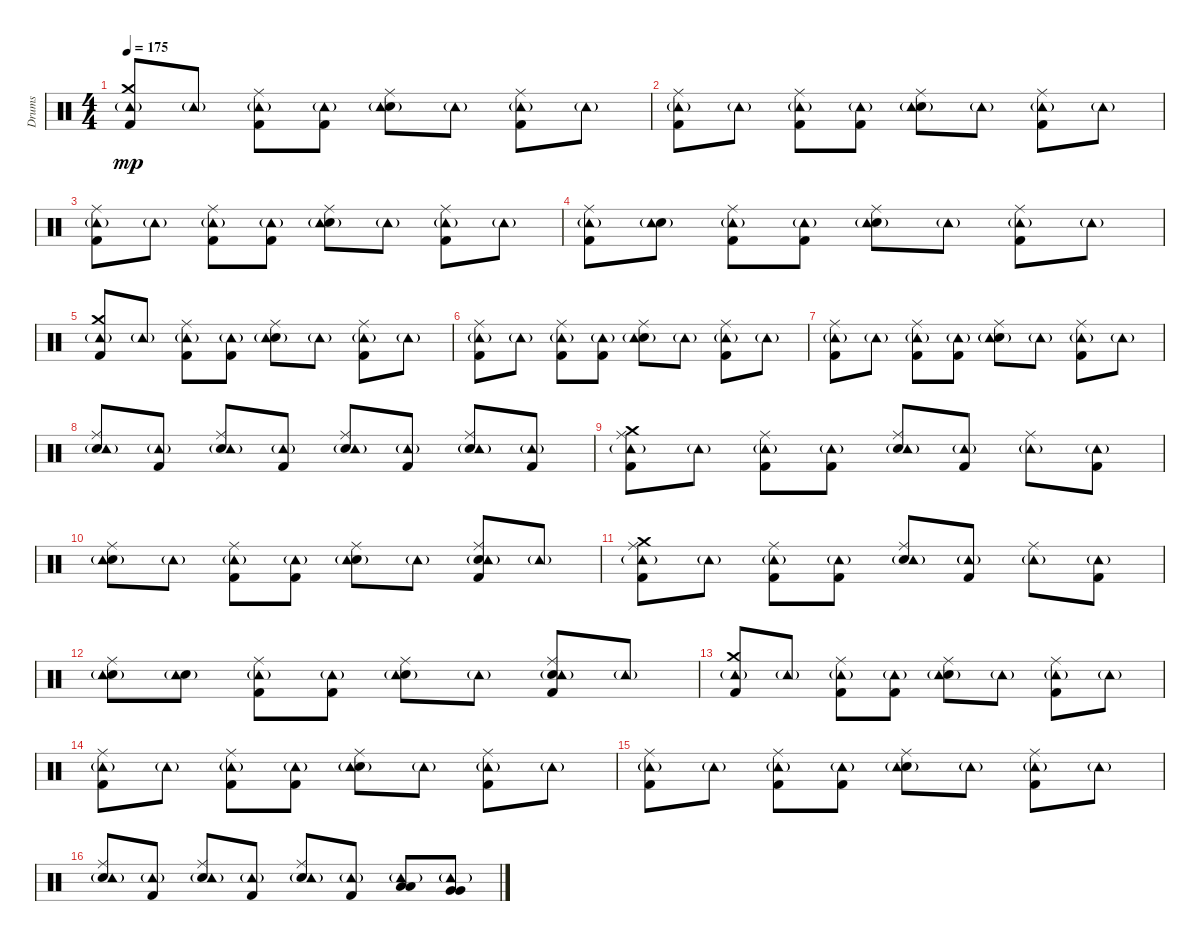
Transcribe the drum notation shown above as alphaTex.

\track ("Drums" "Drums") {instrument percussion}
\staff {score}
\articulation defaults
\ts (4 4)
\tempo 175
\clef neutral
\ks c
("Kick (hit) 2" "Crash medium (hit)" "Tambourine (hit)"{g}).8{dy mp} "Tambourine (hit)"{g}.8 ("Kick (hit) 2" "Ride (middle)" "Tambourine (hit)"{g}).8 ("Kick (hit) 2" "Tambourine (hit)"{g}).8 ("Electric Snare (hit)" "Ride (middle)" "Tambourine (hit)"{g}).8 "Tambourine (hit)"{g}.8 ("Kick (hit) 2" "Ride (middle)" "Tambourine (hit)"{g}).8 "Tambourine (hit)"{g}.8 |
("Kick (hit) 2" "Ride (middle)" "Tambourine (hit)"{g}).8 "Tambourine (hit)"{g}.8 ("Kick (hit) 2" "Ride (middle)" "Tambourine (hit)"{g}).8 ("Kick (hit) 2" "Tambourine (hit)"{g}).8 ("Electric Snare (hit)" "Ride (middle)" "Tambourine (hit)"{g}).8 "Tambourine (hit)"{g}.8 ("Kick (hit) 2" "Ride (middle)" "Tambourine (hit)"{g}).8 "Tambourine (hit)"{g}.8 |
("Kick (hit) 2" "Ride (middle)" "Tambourine (hit)"{g}).8 "Tambourine (hit)"{g}.8 ("Kick (hit) 2" "Ride (middle)" "Tambourine (hit)"{g}).8 ("Kick (hit) 2" "Tambourine (hit)"{g}).8 ("Electric Snare (hit)" "Ride (middle)" "Tambourine (hit)"{g}).8 "Tambourine (hit)"{g}.8 ("Kick (hit) 2" "Ride (middle)" "Tambourine (hit)"{g}).8 "Tambourine (hit)"{g}.8 |
("Kick (hit) 2" "Ride (middle)" "Tambourine (hit)"{g}).8 ("Electric Snare (hit)" "Tambourine (hit)"{g}).8 ("Kick (hit) 2" "Ride (middle)" "Tambourine (hit)"{g}).8 ("Kick (hit) 2" "Tambourine (hit)"{g}).8 ("Electric Snare (hit)" "Ride (middle)" "Tambourine (hit)"{g}).8 "Tambourine (hit)"{g}.8 ("Kick (hit) 2" "Ride (middle)" "Tambourine (hit)"{g}).8 "Tambourine (hit)"{g}.8 |
("Kick (hit) 2" "Crash medium (hit)" "Tambourine (hit)"{g}).8 "Tambourine (hit)"{g}.8 ("Kick (hit) 2" "Ride (middle)" "Tambourine (hit)"{g}).8 ("Kick (hit) 2" "Tambourine (hit)"{g}).8 ("Electric Snare (hit)" "Ride (middle)" "Tambourine (hit)"{g}).8 "Tambourine (hit)"{g}.8 ("Kick (hit) 2" "Ride (middle)" "Tambourine (hit)"{g}).8 "Tambourine (hit)"{g}.8 |
("Kick (hit) 2" "Ride (middle)" "Tambourine (hit)"{g}).8 "Tambourine (hit)"{g}.8 ("Kick (hit) 2" "Ride (middle)" "Tambourine (hit)"{g}).8 ("Kick (hit) 2" "Tambourine (hit)"{g}).8 ("Electric Snare (hit)" "Ride (middle)" "Tambourine (hit)"{g}).8 "Tambourine (hit)"{g}.8 ("Kick (hit) 2" "Ride (middle)" "Tambourine (hit)"{g}).8 "Tambourine (hit)"{g}.8 |
("Kick (hit) 2" "Ride (middle)" "Tambourine (hit)"{g}).8 "Tambourine (hit)"{g}.8 ("Kick (hit) 2" "Ride (middle)" "Tambourine (hit)"{g}).8 ("Kick (hit) 2" "Tambourine (hit)"{g}).8 ("Electric Snare (hit)" "Ride (middle)" "Tambourine (hit)"{g}).8 "Tambourine (hit)"{g}.8 ("Kick (hit) 2" "Ride (middle)" "Tambourine (hit)"{g}).8 "Tambourine (hit)"{g}.8 |
("Electric Snare (hit)" "Ride (middle)" "Tambourine (hit)"{g}).8 ("Kick (hit) 2" "Tambourine (hit)"{g}).8 ("Electric Snare (hit)" "Ride (middle)" "Tambourine (hit)"{g}).8 ("Kick (hit) 2" "Tambourine (hit)"{g}).8 ("Electric Snare (hit)" "Ride (middle)" "Tambourine (hit)"{g}).8 ("Kick (hit) 2" "Tambourine (hit)"{g}).8 ("Electric Snare (hit)" "Ride (middle)" "Tambourine (hit)"{g}).8 ("Kick (hit) 2" "Tambourine (hit)"{g}).8 |
("Kick (hit) 2" "Ride (middle)" "Crash medium (hit)" "Tambourine (hit)"{g}).8 "Tambourine (hit)"{g}.8 ("Kick (hit) 2" "Ride (middle)" "Tambourine (hit)"{g}).8 ("Kick (hit) 2" "Tambourine (hit)"{g}).8 ("Electric Snare (hit)" "Ride (middle)" "Tambourine (hit)"{g}).8 ("Kick (hit) 2" "Tambourine (hit)"{g}).8 ("Ride (middle)" "Tambourine (hit)"{g}).8 ("Kick (hit) 2" "Tambourine (hit)"{g}).8 |
("Electric Snare (hit)" "Ride (middle)" "Tambourine (hit)"{g}).8 "Tambourine (hit)"{g}.8 ("Kick (hit) 2" "Ride (middle)" "Tambourine (hit)"{g}).8 ("Kick (hit) 2" "Tambourine (hit)"{g}).8 ("Electric Snare (hit)" "Ride (middle)" "Tambourine (hit)"{g}).8 "Tambourine (hit)"{g}.8 ("Kick (hit) 2" "Electric Snare (hit)" "Ride (middle)" "Tambourine (hit)"{g}).8 "Tambourine (hit)"{g}.8 |
("Kick (hit) 2" "Ride (middle)" "Crash medium (hit)" "Tambourine (hit)"{g}).8 "Tambourine (hit)"{g}.8 ("Kick (hit) 2" "Ride (middle)" "Tambourine (hit)"{g}).8 ("Kick (hit) 2" "Tambourine (hit)"{g}).8 ("Electric Snare (hit)" "Ride (middle)" "Tambourine (hit)"{g}).8 ("Kick (hit) 2" "Tambourine (hit)"{g}).8 ("Ride (middle)" "Tambourine (hit)"{g}).8 ("Kick (hit) 2" "Tambourine (hit)"{g}).8 |
("Electric Snare (hit)" "Ride (middle)" "Tambourine (hit)"{g}).8 ("Electric Snare (hit)" "Tambourine (hit)"{g}).8 ("Kick (hit) 2" "Ride (middle)" "Tambourine (hit)"{g}).8 ("Kick (hit) 2" "Tambourine (hit)"{g}).8 ("Electric Snare (hit)" "Ride (middle)" "Tambourine (hit)"{g}).8 "Tambourine (hit)"{g}.8 ("Kick (hit) 2" "Electric Snare (hit)" "Ride (middle)" "Tambourine (hit)"{g}).8 "Tambourine (hit)"{g}.8 |
("Kick (hit) 2" "Crash medium (hit)" "Tambourine (hit)"{g}).8 "Tambourine (hit)"{g}.8 ("Kick (hit) 2" "Ride (middle)" "Tambourine (hit)"{g}).8 ("Kick (hit) 2" "Tambourine (hit)"{g}).8 ("Electric Snare (hit)" "Ride (middle)" "Tambourine (hit)"{g}).8 "Tambourine (hit)"{g}.8 ("Kick (hit) 2" "Ride (middle)" "Tambourine (hit)"{g}).8 "Tambourine (hit)"{g}.8 |
("Kick (hit) 2" "Ride (middle)" "Tambourine (hit)"{g}).8 "Tambourine (hit)"{g}.8 ("Kick (hit) 2" "Ride (middle)" "Tambourine (hit)"{g}).8 ("Kick (hit) 2" "Tambourine (hit)"{g}).8 ("Electric Snare (hit)" "Ride (middle)" "Tambourine (hit)"{g}).8 "Tambourine (hit)"{g}.8 ("Kick (hit) 2" "Ride (middle)" "Tambourine (hit)"{g}).8 "Tambourine (hit)"{g}.8 |
("Kick (hit) 2" "Ride (middle)" "Tambourine (hit)"{g}).8 "Tambourine (hit)"{g}.8 ("Kick (hit) 2" "Ride (middle)" "Tambourine (hit)"{g}).8 ("Kick (hit) 2" "Tambourine (hit)"{g}).8 ("Electric Snare (hit)" "Ride (middle)" "Tambourine (hit)"{g}).8 "Tambourine (hit)"{g}.8 ("Kick (hit) 2" "Ride (middle)" "Tambourine (hit)"{g}).8 "Tambourine (hit)"{g}.8 |
("Electric Snare (hit)" "Ride (middle)" "Tambourine (hit)"{g}).8 ("Kick (hit) 2" "Tambourine (hit)"{g}).8 ("Electric Snare (hit)" "Ride (middle)" "Tambourine (hit)"{g}).8 ("Kick (hit) 2" "Tambourine (hit)"{g}).8 ("Electric Snare (hit)" "Ride (middle)" "Tambourine (hit)"{g}).8 ("Kick (hit) 2" "Tambourine (hit)"{g}).8 ("Low Tom (hit)" "Low Tom (hit)" "Tambourine (hit)"{g}).8 ("Very Low Tom (hit)" "Very Low Tom (hit)" "Tambourine (hit)"{g}).8
